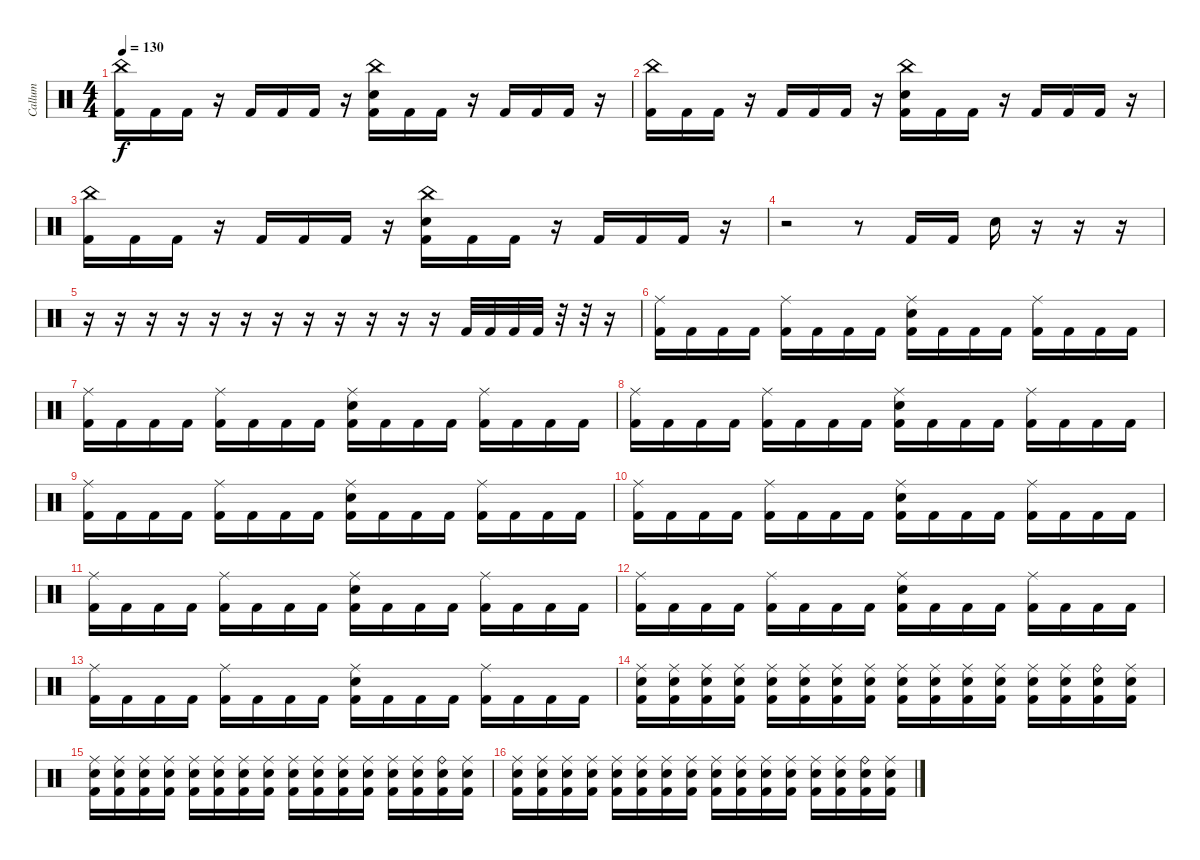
\track ("Callum" "Callum") {instrument percussion}
\staff {score}
\articulation defaults
\ts (4 4)
\tempo 130
\clef neutral
\ks c
("China (hit)" "Kick (hit) 2").16{dy f} "Kick (hit) 2".16 "Kick (hit) 2".16 r.16 "Kick (hit) 2".16 "Kick (hit) 2".16 "Kick (hit) 2".16 r.16 ("China (hit)" "Electric Snare (hit)" "Kick (hit) 2").16 "Kick (hit) 2".16 "Kick (hit) 2".16 r.16 "Kick (hit) 2".16 "Kick (hit) 2".16 "Kick (hit) 2".16 r.16 |
("China (hit)" "Kick (hit) 2").16 "Kick (hit) 2".16 "Kick (hit) 2".16 r.16 "Kick (hit) 2".16 "Kick (hit) 2".16 "Kick (hit) 2".16 r.16 ("China (hit)" "Electric Snare (hit)" "Kick (hit) 2").16 "Kick (hit) 2".16 "Kick (hit) 2".16 r.16 "Kick (hit) 2".16 "Kick (hit) 2".16 "Kick (hit) 2".16 r.16 |
("China (hit)" "Kick (hit) 2").16 "Kick (hit) 2".16 "Kick (hit) 2".16 r.16 "Kick (hit) 2".16 "Kick (hit) 2".16 "Kick (hit) 2".16 r.16 ("China (hit)" "Electric Snare (hit)" "Kick (hit) 2").16 "Kick (hit) 2".16 "Kick (hit) 2".16 r.16 "Kick (hit) 2".16 "Kick (hit) 2".16 "Kick (hit) 2".16 r.16 |
r.2 r.8 "Kick (hit) 2".16 "Kick (hit) 2".16 "Electric Snare (hit)".16 r.16 r.16 r.16 |
r.16 r.16 r.16 r.16 r.16 r.16 r.16 r.16 r.16 r.16 r.16 r.16 "Kick (hit) 2".32 "Kick (hit) 2".32 "Kick (hit) 2".32 "Kick (hit) 2".32 r.32 r.32 r.16 |
("Ride (middle)" "Kick (hit) 2").16 "Kick (hit) 2".16 "Kick (hit) 2".16 "Kick (hit) 2".16 ("Ride (middle)" "Kick (hit) 2").16 "Kick (hit) 2".16 "Kick (hit) 2".16 "Kick (hit) 2".16 ("Ride (middle)" "Electric Snare (hit)" "Kick (hit) 2").16 "Kick (hit) 2".16 "Kick (hit) 2".16 "Kick (hit) 2".16 ("Ride (middle)" "Kick (hit) 2").16 "Kick (hit) 2".16 "Kick (hit) 2".16 "Kick (hit) 2".16 |
("Ride (middle)" "Kick (hit) 2").16 "Kick (hit) 2".16 "Kick (hit) 2".16 "Kick (hit) 2".16 ("Ride (middle)" "Kick (hit) 2").16 "Kick (hit) 2".16 "Kick (hit) 2".16 "Kick (hit) 2".16 ("Ride (middle)" "Electric Snare (hit)" "Kick (hit) 2").16 "Kick (hit) 2".16 "Kick (hit) 2".16 "Kick (hit) 2".16 ("Ride (middle)" "Kick (hit) 2").16 "Kick (hit) 2".16 "Kick (hit) 2".16 "Kick (hit) 2".16 |
("Ride (middle)" "Kick (hit) 2").16 "Kick (hit) 2".16 "Kick (hit) 2".16 "Kick (hit) 2".16 ("Ride (middle)" "Kick (hit) 2").16 "Kick (hit) 2".16 "Kick (hit) 2".16 "Kick (hit) 2".16 ("Ride (middle)" "Electric Snare (hit)" "Kick (hit) 2").16 "Kick (hit) 2".16 "Kick (hit) 2".16 "Kick (hit) 2".16 ("Ride (middle)" "Kick (hit) 2").16 "Kick (hit) 2".16 "Kick (hit) 2".16 "Kick (hit) 2".16 |
("Ride (middle)" "Kick (hit) 2").16 "Kick (hit) 2".16 "Kick (hit) 2".16 "Kick (hit) 2".16 ("Ride (middle)" "Kick (hit) 2").16 "Kick (hit) 2".16 "Kick (hit) 2".16 "Kick (hit) 2".16 ("Ride (middle)" "Electric Snare (hit)" "Kick (hit) 2").16 "Kick (hit) 2".16 "Kick (hit) 2".16 "Kick (hit) 2".16 ("Ride (middle)" "Kick (hit) 2").16 "Kick (hit) 2".16 "Kick (hit) 2".16 "Kick (hit) 2".16 |
("Ride (middle)" "Kick (hit) 2").16 "Kick (hit) 2".16 "Kick (hit) 2".16 "Kick (hit) 2".16 ("Ride (middle)" "Kick (hit) 2").16 "Kick (hit) 2".16 "Kick (hit) 2".16 "Kick (hit) 2".16 ("Ride (middle)" "Electric Snare (hit)" "Kick (hit) 2").16 "Kick (hit) 2".16 "Kick (hit) 2".16 "Kick (hit) 2".16 ("Ride (middle)" "Kick (hit) 2").16 "Kick (hit) 2".16 "Kick (hit) 2".16 "Kick (hit) 2".16 |
("Ride (middle)" "Kick (hit) 2").16 "Kick (hit) 2".16 "Kick (hit) 2".16 "Kick (hit) 2".16 ("Ride (middle)" "Kick (hit) 2").16 "Kick (hit) 2".16 "Kick (hit) 2".16 "Kick (hit) 2".16 ("Ride (middle)" "Electric Snare (hit)" "Kick (hit) 2").16 "Kick (hit) 2".16 "Kick (hit) 2".16 "Kick (hit) 2".16 ("Ride (middle)" "Kick (hit) 2").16 "Kick (hit) 2".16 "Kick (hit) 2".16 "Kick (hit) 2".16 |
("Ride (middle)" "Kick (hit) 2").16 "Kick (hit) 2".16 "Kick (hit) 2".16 "Kick (hit) 2".16 ("Ride (middle)" "Kick (hit) 2").16 "Kick (hit) 2".16 "Kick (hit) 2".16 "Kick (hit) 2".16 ("Ride (middle)" "Electric Snare (hit)" "Kick (hit) 2").16 "Kick (hit) 2".16 "Kick (hit) 2".16 "Kick (hit) 2".16 ("Ride (middle)" "Kick (hit) 2").16 "Kick (hit) 2".16 "Kick (hit) 2".16 "Kick (hit) 2".16 |
("Ride (middle)" "Kick (hit) 2").16 "Kick (hit) 2".16 "Kick (hit) 2".16 "Kick (hit) 2".16 ("Ride (middle)" "Kick (hit) 2").16 "Kick (hit) 2".16 "Kick (hit) 2".16 "Kick (hit) 2".16 ("Ride (middle)" "Electric Snare (hit)" "Kick (hit) 2").16 "Kick (hit) 2".16 "Kick (hit) 2".16 "Kick (hit) 2".16 ("Ride (middle)" "Kick (hit) 2").16 "Kick (hit) 2".16 "Kick (hit) 2".16 "Kick (hit) 2".16 |
("Ride (middle)" "Electric Snare (hit)" "Kick (hit) 2").16 ("Ride (middle)" "Electric Snare (hit)" "Kick (hit) 2").16 ("Ride (middle)" "Electric Snare (hit)" "Kick (hit) 2").16 ("Ride (middle)" "Electric Snare (hit)" "Kick (hit) 2").16 ("Ride (middle)" "Electric Snare (hit)" "Kick (hit) 2").16 ("Ride (middle)" "Electric Snare (hit)" "Kick (hit) 2").16 ("Ride (middle)" "Electric Snare (hit)" "Kick (hit) 2").16 ("Ride (middle)" "Electric Snare (hit)" "Kick (hit) 2").16 ("Ride (middle)" "Electric Snare (hit)" "Kick (hit) 2").16 ("Ride (middle)" "Electric Snare (hit)" "Kick (hit) 2").16 ("Ride (middle)" "Electric Snare (hit)" "Kick (hit) 2").16 ("Ride (middle)" "Electric Snare (hit)" "Kick (hit) 2").16 ("Ride (middle)" "Electric Snare (hit)" "Kick (hit) 2").16 ("Ride (middle)" "Electric Snare (hit)" "Kick (hit) 2").16 ("Ride (bell)" "Electric Snare (hit)" "Kick (hit) 2").16 ("Ride (middle)" "Electric Snare (hit)" "Kick (hit) 2").16 |
("Ride (middle)" "Electric Snare (hit)" "Kick (hit) 2").16 ("Ride (middle)" "Electric Snare (hit)" "Kick (hit) 2").16 ("Ride (middle)" "Electric Snare (hit)" "Kick (hit) 2").16 ("Ride (middle)" "Electric Snare (hit)" "Kick (hit) 2").16 ("Ride (middle)" "Electric Snare (hit)" "Kick (hit) 2").16 ("Ride (middle)" "Electric Snare (hit)" "Kick (hit) 2").16 ("Ride (middle)" "Electric Snare (hit)" "Kick (hit) 2").16 ("Ride (middle)" "Electric Snare (hit)" "Kick (hit) 2").16 ("Ride (middle)" "Electric Snare (hit)" "Kick (hit) 2").16 ("Ride (middle)" "Electric Snare (hit)" "Kick (hit) 2").16 ("Ride (middle)" "Electric Snare (hit)" "Kick (hit) 2").16 ("Ride (middle)" "Electric Snare (hit)" "Kick (hit) 2").16 ("Ride (middle)" "Electric Snare (hit)" "Kick (hit) 2").16 ("Ride (middle)" "Electric Snare (hit)" "Kick (hit) 2").16 ("Ride (bell)" "Electric Snare (hit)" "Kick (hit) 2").16 ("Ride (middle)" "Electric Snare (hit)" "Kick (hit) 2").16 |
("Ride (middle)" "Electric Snare (hit)" "Kick (hit) 2").16 ("Ride (middle)" "Electric Snare (hit)" "Kick (hit) 2").16 ("Ride (middle)" "Electric Snare (hit)" "Kick (hit) 2").16 ("Ride (middle)" "Electric Snare (hit)" "Kick (hit) 2").16 ("Ride (middle)" "Electric Snare (hit)" "Kick (hit) 2").16 ("Ride (middle)" "Electric Snare (hit)" "Kick (hit) 2").16 ("Ride (middle)" "Electric Snare (hit)" "Kick (hit) 2").16 ("Ride (middle)" "Electric Snare (hit)" "Kick (hit) 2").16 ("Ride (middle)" "Electric Snare (hit)" "Kick (hit) 2").16 ("Ride (middle)" "Electric Snare (hit)" "Kick (hit) 2").16 ("Ride (middle)" "Electric Snare (hit)" "Kick (hit) 2").16 ("Ride (middle)" "Electric Snare (hit)" "Kick (hit) 2").16 ("Ride (middle)" "Electric Snare (hit)" "Kick (hit) 2").16 ("Ride (middle)" "Electric Snare (hit)" "Kick (hit) 2").16 ("Ride (bell)" "Electric Snare (hit)" "Kick (hit) 2").16 ("Ride (middle)" "Electric Snare (hit)" "Kick (hit) 2").16
